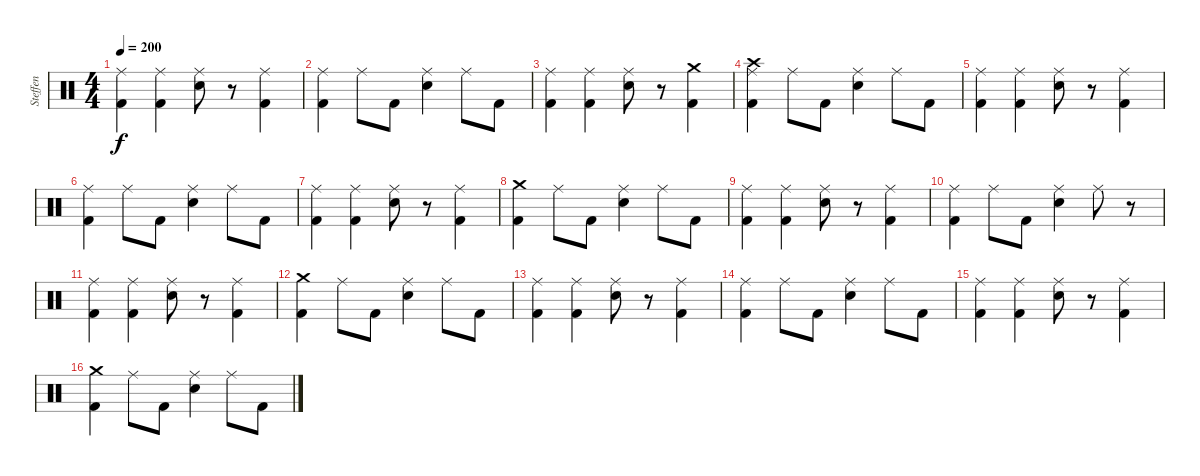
\track ("Steffen" "Steffen") {instrument percussion}
\staff {score}
\articulation defaults
\ts (4 4)
\tempo 200
\clef neutral
\ks c
("Ride (middle)" "Kick (hit) 2").4{dy f} ("Ride (middle)" "Kick (hit) 2").4 ("Ride (middle)" "Electric Snare (hit)").8 r.8 ("Ride (middle)" "Kick (hit) 2").4 |
("Ride (middle)" "Kick (hit) 2").4 "Ride (middle)".8 "Kick (hit) 2".8 ("Ride (middle)" "Electric Snare (hit)").4 "Ride (middle)".8 "Kick (hit) 2".8 |
("Ride (middle)" "Kick (hit) 2").4 ("Ride (middle)" "Kick (hit) 2").4 ("Ride (middle)" "Electric Snare (hit)").8 r.8 ("Crash medium (hit)" "Kick (hit) 2").4 |
("Ride (middle)" "Crash high (hit)" "Kick (hit) 2").4 "Ride (middle)".8 "Kick (hit) 2".8 ("Ride (middle)" "Electric Snare (hit)").4 "Ride (middle)".8 "Kick (hit) 2".8 |
("Ride (middle)" "Kick (hit) 2").4 ("Ride (middle)" "Kick (hit) 2").4 ("Ride (middle)" "Electric Snare (hit)").8 r.8 ("Ride (middle)" "Kick (hit) 2").4 |
("Ride (middle)" "Kick (hit) 2").4 "Ride (middle)".8 "Kick (hit) 2".8 ("Ride (middle)" "Electric Snare (hit)").4 "Ride (middle)".8 "Kick (hit) 2".8 |
("Ride (middle)" "Kick (hit) 2").4 ("Ride (middle)" "Kick (hit) 2").4 ("Ride (middle)" "Electric Snare (hit)").8 r.8 ("Ride (middle)" "Kick (hit) 2").4 |
("Crash medium (hit)" "Kick (hit) 2").4 "Ride (middle)".8 "Kick (hit) 2".8 ("Ride (middle)" "Electric Snare (hit)").4 "Ride (middle)".8 "Kick (hit) 2".8 |
("Ride (middle)" "Kick (hit) 2").4 ("Ride (middle)" "Kick (hit) 2").4 ("Ride (middle)" "Electric Snare (hit)").8 r.8 ("Ride (middle)" "Kick (hit) 2").4 |
("Ride (middle)" "Kick (hit) 2").4 "Ride (middle)".8 "Kick (hit) 2".8 ("Ride (middle)" "Electric Snare (hit)").4 "Ride (middle)".8 r.8 |
("Ride (middle)" "Kick (hit) 2").4 ("Ride (middle)" "Kick (hit) 2").4 ("Ride (middle)" "Electric Snare (hit)").8 r.8 ("Ride (middle)" "Kick (hit) 2").4 |
("Crash medium (hit)" "Kick (hit) 2").4 "Ride (middle)".8 "Kick (hit) 2".8 ("Ride (middle)" "Electric Snare (hit)").4 "Ride (middle)".8 "Kick (hit) 2".8 |
("Ride (middle)" "Kick (hit) 2").4 ("Ride (middle)" "Kick (hit) 2").4 ("Ride (middle)" "Electric Snare (hit)").8 r.8 ("Ride (middle)" "Kick (hit) 2").4 |
("Ride (middle)" "Kick (hit) 2").4 "Ride (middle)".8 "Kick (hit) 2".8 ("Ride (middle)" "Electric Snare (hit)").4 "Ride (middle)".8 "Kick (hit) 2".8 |
("Ride (middle)" "Kick (hit) 2").4 ("Ride (middle)" "Kick (hit) 2").4 ("Ride (middle)" "Electric Snare (hit)").8 r.8 ("Ride (middle)" "Kick (hit) 2").4 |
("Crash medium (hit)" "Kick (hit) 2").4 "Ride (middle)".8 "Kick (hit) 2".8 ("Ride (middle)" "Electric Snare (hit)").4 "Ride (middle)".8 "Kick (hit) 2".8
